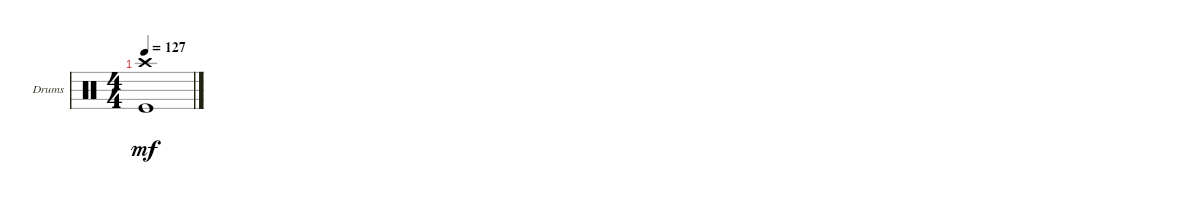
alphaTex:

\defaultSystemsLayout 4
\bracketExtendMode groupsimilarinstruments
\firstSystemTrackNameOrientation horizontal
\otherSystemsTrackNameOrientation horizontal
\track ("Drums 2" "Drums") {instrument percussion}
\staff {score}
\articulation defaults
\ts (4 4)
\tempo 127
\clef neutral
\ks c
("Kick (hit)"{t} "Crash high (hit)"{t}).1{dy mf}
